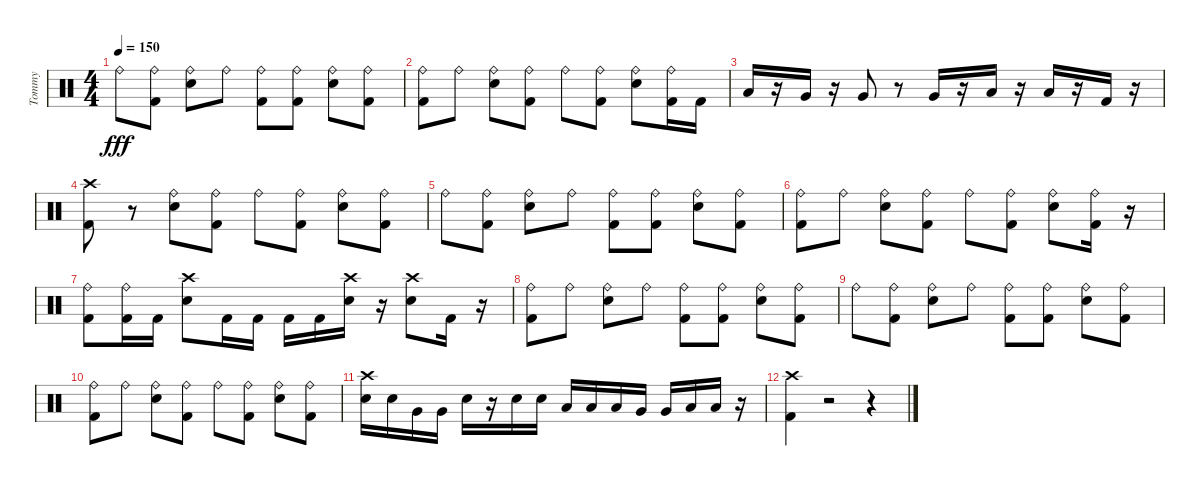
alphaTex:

\track ("Tommy" "Tommy") {instrument percussion}
\staff {score}
\articulation defaults
\ts (4 4)
\tempo 150
\clef neutral
\ks c "Ride (bell)".8{dy fff}
("Ride (bell)" "Kick (hit) 2").8 ("Ride (bell)" "Snare (hit) 2").8 "Ride (bell)".8 ("Ride (bell)" "Kick (hit) 2").8 ("Ride (bell)" "Kick (hit) 2").8 ("Ride (bell)" "Snare (hit) 2").8 ("Ride (bell)" "Kick (hit) 2").8 |
("Kick (hit) 2" "Ride (bell)").8 "Ride (bell)".8 ("Snare (hit) 2" "Ride (bell)").8 ("Kick (hit) 2" "Ride (bell)").8 "Ride (bell)".8 ("Kick (hit) 2" "Ride (bell)").8 ("Snare (hit) 2" "Ride (bell)").8 ("Kick (hit) 2" "Ride (bell)").16 "Kick (hit) 2".16 |
"Low Tom (hit)".16 r.16 "Very Low Tom (hit)".16 r.16 "Very Low Tom (hit)".8 r.8 "Very Low Tom (hit)".16 r.16 "Low Floor Tom (hit)".16 r.16 "Low Floor Tom (hit)".16 r.16 "Kick (hit) 2".16 r.16 |
("Kick (hit) 2" "Crash high (hit)").8 r.8 ("Ride (bell)" "Snare (hit) 2").8 ("Ride (bell)" "Kick (hit) 2").8 "Ride (bell)".8 ("Ride (bell)" "Kick (hit) 2").8 ("Ride (bell)" "Snare (hit) 2").8 ("Ride (bell)" "Kick (hit) 2").8 |
"Ride (bell)".8 ("Ride (bell)" "Kick (hit) 2").8 ("Ride (bell)" "Snare (hit) 2").8 "Ride (bell)".8 ("Ride (bell)" "Kick (hit) 2").8 ("Ride (bell)" "Kick (hit) 2").8 ("Ride (bell)" "Snare (hit) 2").8 ("Ride (bell)" "Kick (hit) 2").8 |
("Ride (bell)" "Kick (hit) 2").8 "Ride (bell)".8 ("Ride (bell)" "Snare (hit) 2").8 ("Ride (bell)" "Kick (hit) 2").8 "Ride (bell)".8 ("Ride (bell)" "Kick (hit) 2").8 ("Ride (bell)" "Snare (hit) 2").8 ("Kick (hit) 2" "Ride (bell)").16 r.16 |
("Kick (hit) 2" "Ride (bell)").8 ("Ride (bell)" "Kick (hit) 2").16 "Kick (hit) 2".16 ("Crash high (hit)" "Snare (hit) 2").8 "Kick (hit) 2".16 "Kick (hit) 2".16 "Kick (hit) 2".16 "Kick (hit) 2".16 ("Crash high (hit)" "Snare (hit) 2").16 r.16 ("Crash high (hit)" "Snare (hit) 2").8 "Kick (hit) 2".16 r.16 |
("Ride (bell)" "Kick (hit) 2").8 "Ride (bell)".8 ("Ride (bell)" "Snare (hit) 2").8 "Ride (bell)".8 ("Ride (bell)" "Kick (hit) 2").8 ("Ride (bell)" "Kick (hit) 2").8 ("Ride (bell)" "Snare (hit) 2").8 ("Ride (bell)" "Kick (hit) 2").8 |
"Ride (bell)".8 ("Ride (bell)" "Kick (hit) 2").8 ("Ride (bell)" "Snare (hit) 2").8 "Ride (bell)".8 ("Ride (bell)" "Kick (hit) 2").8 ("Ride (bell)" "Kick (hit) 2").8 ("Ride (bell)" "Snare (hit) 2").8 ("Ride (bell)" "Kick (hit) 2").8 |
("Kick (hit) 2" "Ride (bell)").8 "Ride (bell)".8 ("Snare (hit) 2" "Ride (bell)").8 ("Kick (hit) 2" "Ride (bell)").8 "Ride (bell)".8 ("Kick (hit) 2" "Ride (bell)").8 ("Snare (hit) 2" "Ride (bell)").8 ("Kick (hit) 2" "Ride (bell)").8 |
("Snare (hit) 2" "Crash high (hit)").16 "Snare (hit) 2".16 "Very Low Tom (hit)".16 "Very Low Tom (hit)".16 "Snare (hit) 2".16 r.16 "Snare (hit) 2".16 "Snare (hit) 2".16 "Low Tom (hit)".16 "Low Tom (hit)".16 "Low Tom (hit)".16 "Very Low Tom (hit)".16 "Very Low Tom (hit)".16 "Low Floor Tom (hit)".16 "Low Floor Tom (hit)".16 r.16 |
("Kick (hit) 2" "Crash high (hit)").4 r.2 r.4
